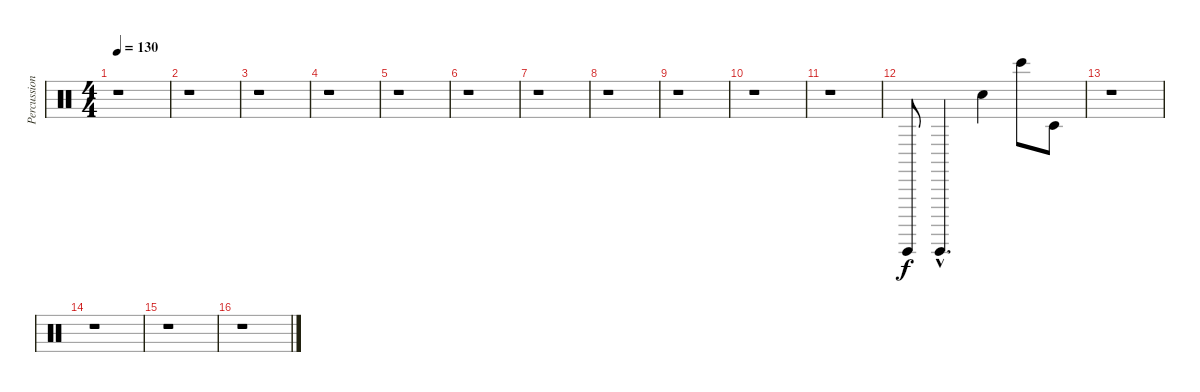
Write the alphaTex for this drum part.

\track ("Percussion" "Percussion") {instrument percussion}
\staff {score}
\articulation defaults
\ts (4 4)
\tempo 130
\clef neutral
\ks c
r.1{dy f} |
r.1 |
r.1 |
r.1 |
r.1 |
r.1 |
r.1 |
r.1 |
r.1 |
r.1 |
r.1 |
"Guiro (hit)".8 "Guiro (hit)"{hac}.4{d} "Metronome (bell)".4 "Bongo High (hit)".8 "Timbale low (hit)".8 |
r.1 |
r.1 |
r.1 |
r.1
